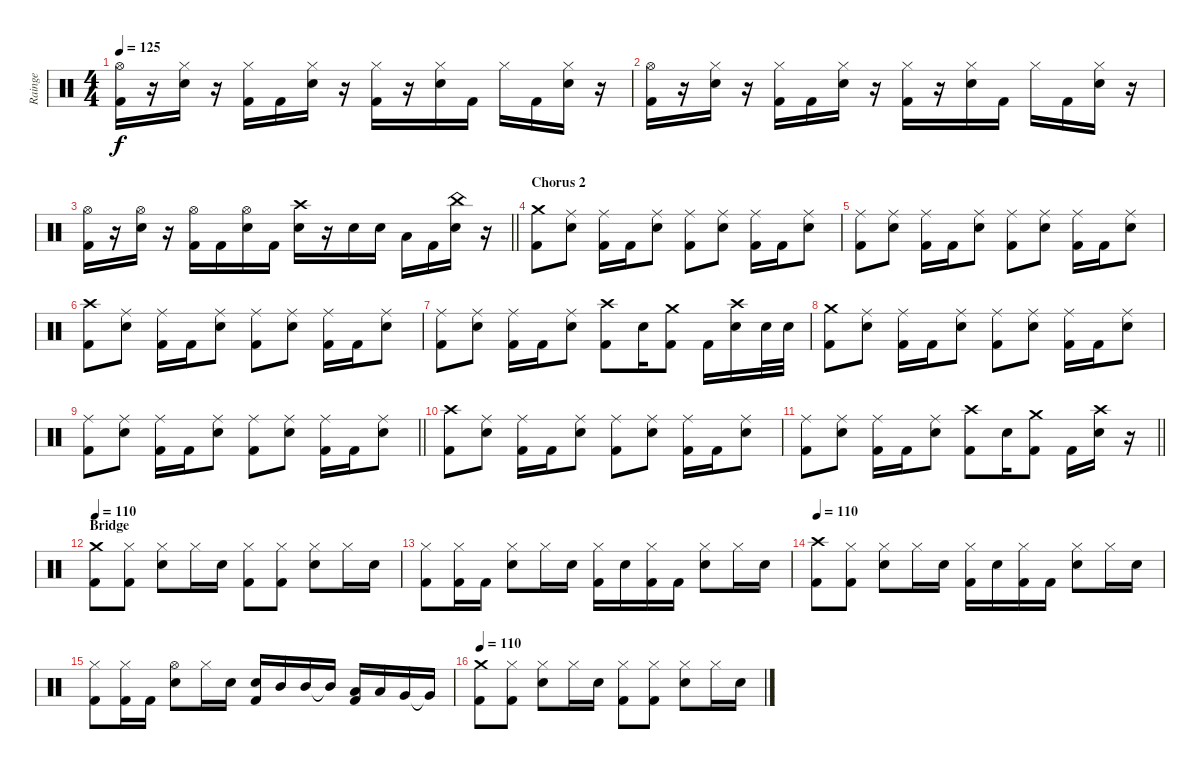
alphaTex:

\track ("Rainge" "Rainge") {instrument percussion}
\staff {score}
\articulation defaults
\ts (4 4)
\tempo 125
\clef neutral
\ks c
("Hi-Hat (open)" "Kick (hit) 2").16{dy f} r.16 ("Hi-Hat (closed)" "Electric Snare (hit)").16 r.16 ("Hi-Hat (closed)" "Kick (hit) 2").16 "Kick (hit) 2".16 ("Hi-Hat (closed)" "Electric Snare (hit)").16 r.16 ("Hi-Hat (closed)" "Kick (hit) 2").16 r.16 ("Hi-Hat (closed)" "Electric Snare (hit)").16 "Kick (hit) 2".16 "Hi-Hat (closed)".16 "Kick (hit) 2".16 ("Hi-Hat (closed)" "Electric Snare (hit)").16 r.16 |
("Hi-Hat (open)" "Kick (hit) 2").16 r.16 ("Hi-Hat (closed)" "Electric Snare (hit)").16 r.16 ("Hi-Hat (closed)" "Kick (hit) 2").16 "Kick (hit) 2".16 ("Hi-Hat (closed)" "Electric Snare (hit)").16 r.16 ("Hi-Hat (closed)" "Kick (hit) 2").16 r.16 ("Hi-Hat (closed)" "Electric Snare (hit)").16 "Kick (hit) 2".16 "Hi-Hat (closed)".16 "Kick (hit) 2".16 ("Hi-Hat (closed)" "Electric Snare (hit)").16 r.16 |
\barLineRight lightlight
("Hi-Hat (open)" "Kick (hit) 2").16 r.16 ("Hi-Hat (open)" "Electric Snare (hit)").16 r.16 ("Hi-Hat (open)" "Kick (hit) 2").16 "Kick (hit) 2".16 ("Hi-Hat (open)" "Electric Snare (hit)").16 "Kick (hit) 2".16 ("Crash high (hit)" "Electric Snare (hit)").16 r.16 "Electric Snare (hit)".16 "Electric Snare (hit)".16 "Low Tom (hit)".16 "Kick (hit) 2".16 ("China (hit)" "Electric Snare (hit)").16 r.16 |
\section ("" "Chorus 2")
("Crash medium (hit)" "Kick (hit) 2").8 ("Ride (middle)" "Electric Snare (hit)").8 ("Ride (middle)" "Kick (hit) 2").16 "Kick (hit) 2".16 ("Ride (middle)" "Electric Snare (hit)").8 ("Ride (middle)" "Kick (hit) 2").8 ("Ride (middle)" "Electric Snare (hit)").8 ("Ride (middle)" "Kick (hit) 2").16 "Kick (hit) 2".16 ("Ride (middle)" "Electric Snare (hit)").8 |
("Ride (middle)" "Kick (hit) 2").8 ("Ride (middle)" "Electric Snare (hit)").8 ("Ride (middle)" "Kick (hit) 2").16 "Kick (hit) 2".16 ("Ride (middle)" "Electric Snare (hit)").8 ("Ride (middle)" "Kick (hit) 2").8 ("Ride (middle)" "Electric Snare (hit)").8 ("Ride (middle)" "Kick (hit) 2").16 "Kick (hit) 2".16 ("Ride (middle)" "Electric Snare (hit)").8 |
("Crash high (hit)" "Kick (hit) 2").8 ("Ride (middle)" "Electric Snare (hit)").8 ("Ride (middle)" "Kick (hit) 2").16 "Kick (hit) 2".16 ("Ride (middle)" "Electric Snare (hit)").8 ("Ride (middle)" "Kick (hit) 2").8 ("Ride (middle)" "Electric Snare (hit)").8 ("Ride (middle)" "Kick (hit) 2").16 "Kick (hit) 2".16 ("Ride (middle)" "Electric Snare (hit)").8 |
("Ride (middle)" "Kick (hit) 2").8 ("Ride (middle)" "Electric Snare (hit)").8 ("Ride (middle)" "Kick (hit) 2").16 "Kick (hit) 2".16 ("Ride (middle)" "Electric Snare (hit)").8 ("Crash high (hit)" "Kick (hit) 2").8 "Electric Snare (hit)".16 ("Crash medium (hit)" "Kick (hit) 2").8 "Kick (hit) 2".16 ("Crash high (hit)" "Electric Snare (hit)").16 "Electric Snare (hit)".32 "Electric Snare (hit)".32 |
("Crash medium (hit)" "Kick (hit) 2").8 ("Ride (middle)" "Electric Snare (hit)").8 ("Ride (middle)" "Kick (hit) 2").16 "Kick (hit) 2".16 ("Ride (middle)" "Electric Snare (hit)").8 ("Ride (middle)" "Kick (hit) 2").8 ("Ride (middle)" "Electric Snare (hit)").8 ("Ride (middle)" "Kick (hit) 2").16 "Kick (hit) 2".16 ("Ride (middle)" "Electric Snare (hit)").8 |
\barLineRight lightlight
("Ride (middle)" "Kick (hit) 2").8 ("Ride (middle)" "Electric Snare (hit)").8 ("Ride (middle)" "Kick (hit) 2").16 "Kick (hit) 2".16 ("Ride (middle)" "Electric Snare (hit)").8 ("Ride (middle)" "Kick (hit) 2").8 ("Ride (middle)" "Electric Snare (hit)").8 ("Ride (middle)" "Kick (hit) 2").16 "Kick (hit) 2".16 ("Ride (middle)" "Electric Snare (hit)").8 |
("Crash high (hit)" "Kick (hit) 2").8 ("Ride (middle)" "Electric Snare (hit)").8 ("Ride (middle)" "Kick (hit) 2").16 "Kick (hit) 2".16 ("Ride (middle)" "Electric Snare (hit)").8 ("Ride (middle)" "Kick (hit) 2").8 ("Ride (middle)" "Electric Snare (hit)").8 ("Ride (middle)" "Kick (hit) 2").16 "Kick (hit) 2".16 ("Ride (middle)" "Electric Snare (hit)").8 |
\barLineRight lightlight
("Ride (middle)" "Kick (hit) 2").8 ("Ride (middle)" "Electric Snare (hit)").8 ("Ride (middle)" "Kick (hit) 2").16 "Kick (hit) 2".16 ("Ride (middle)" "Electric Snare (hit)").8 ("Crash high (hit)" "Kick (hit) 2").8 "Electric Snare (hit)".16 ("Crash medium (hit)" "Kick (hit) 2").8 "Kick (hit) 2".16 ("Crash high (hit)" "Electric Snare (hit)").16 r.16 |
\section ("" "Bridge")
\tempo 110
("Crash medium (hit)" "Kick (hit) 2").8 ("Hi-Hat (closed)" "Kick (hit) 2").8 ("Hi-Hat (closed)" "Electric Snare (hit)").8 "Hi-Hat (closed)".16 "Electric Snare (hit)".16 ("Hi-Hat (closed)" "Kick (hit) 2").8 ("Hi-Hat (closed)" "Kick (hit) 2").8 ("Hi-Hat (closed)" "Electric Snare (hit)").8 "Hi-Hat (closed)".16 "Electric Snare (hit)".16 |
("Hi-Hat (closed)" "Kick (hit) 2").8 ("Hi-Hat (closed)" "Kick (hit) 2").16 "Kick (hit) 2".16 ("Hi-Hat (closed)" "Electric Snare (hit)").8 "Hi-Hat (closed)".16 "Electric Snare (hit)".16 ("Hi-Hat (closed)" "Kick (hit) 2").16 "Electric Snare (hit)".16 ("Hi-Hat (closed)" "Kick (hit) 2").16 "Kick (hit) 2".16 ("Hi-Hat (closed)" "Electric Snare (hit)").8 "Hi-Hat (closed)".16 "Electric Snare (hit)".16 |
\tempo 110
("Crash high (hit)" "Kick (hit) 2").8 ("Hi-Hat (closed)" "Kick (hit) 2").8 ("Hi-Hat (closed)" "Electric Snare (hit)").8 "Hi-Hat (closed)".16 "Electric Snare (hit)".16 ("Hi-Hat (closed)" "Kick (hit) 2").16 "Electric Snare (hit)".16 ("Hi-Hat (closed)" "Kick (hit) 2").16 "Kick (hit) 2".16 ("Hi-Hat (closed)" "Electric Snare (hit)").8 "Hi-Hat (closed)".16 "Electric Snare (hit)".16 |
("Hi-Hat (closed)" "Kick (hit) 2").8 ("Hi-Hat (closed)" "Kick (hit) 2").16 "Kick (hit) 2".16 ("Hi-Hat (open)" "Electric Snare (hit)").8 "Hi-Hat (closed)".16 "Electric Snare (hit)".16 ("Electric Snare (hit)" "Kick (hit) 2").16 "Mid Tom (hit)".16 "Mid Tom (hit)".16 "Mid Tom (hit)"{t}.16 ("Low Tom (hit)" "Kick (hit) 2").16 "Low Tom (hit)".16 "Very Low Tom (hit)".16 "Very Low Tom (hit)"{t}.16 |
\tempo 110
("Crash medium (hit)" "Kick (hit) 2").8 ("Hi-Hat (closed)" "Kick (hit) 2").8 ("Hi-Hat (closed)" "Electric Snare (hit)").8 "Hi-Hat (closed)".16 "Electric Snare (hit)".16 ("Hi-Hat (closed)" "Kick (hit) 2").8 ("Hi-Hat (closed)" "Kick (hit) 2").8 ("Hi-Hat (closed)" "Electric Snare (hit)").8 "Hi-Hat (closed)".16 "Electric Snare (hit)".16
